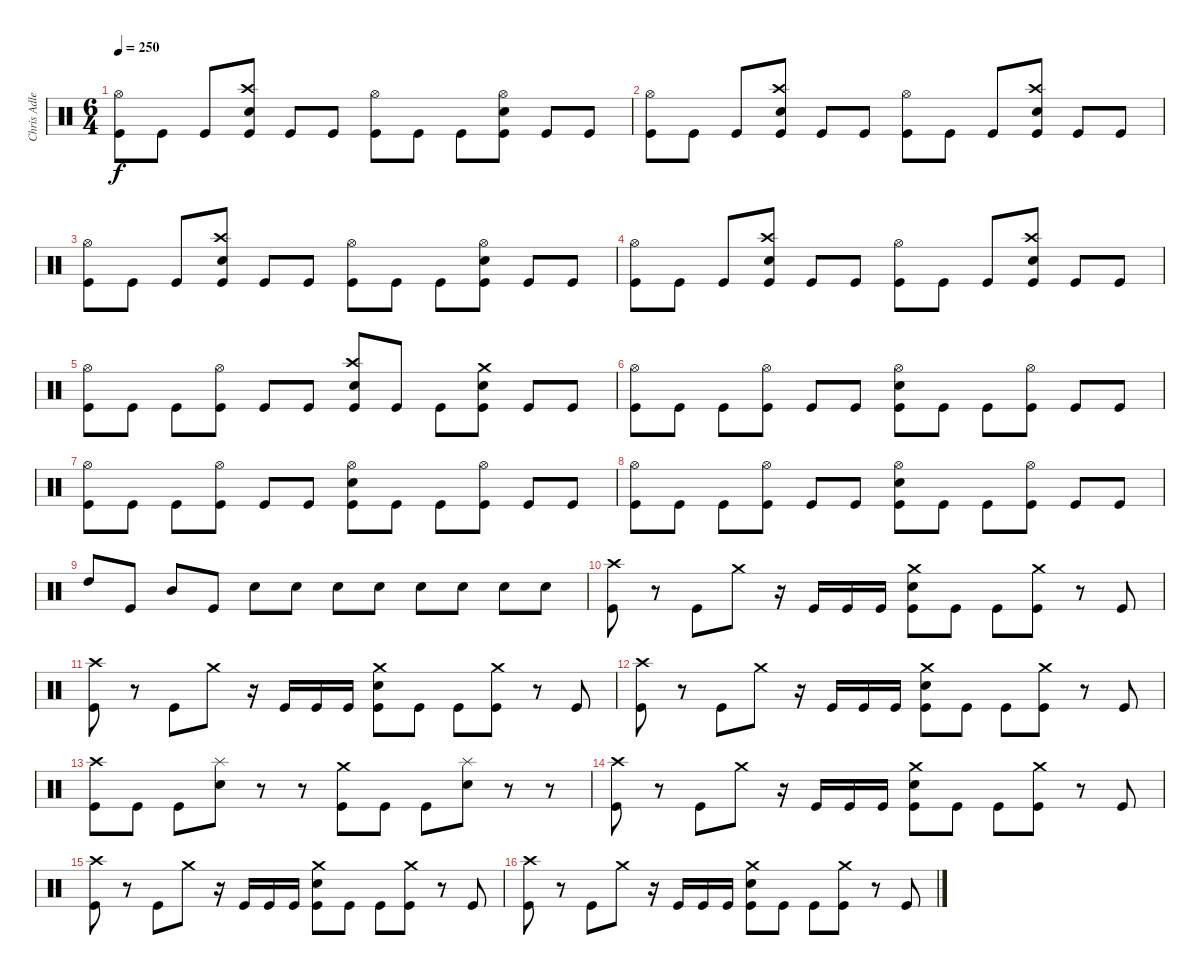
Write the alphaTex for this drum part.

\track ("Chris Adler" "Chris Adle") {instrument percussion}
\staff {score}
\articulation defaults
\ts (6 4)
\tempo 250
\clef neutral
\ks c
("Hi-Hat (open)" "Kick (hit)").8{dy f} "Kick (hit)".8 "Kick (hit)".8 ("Crash high (hit)" "Electric Snare (hit)" "Kick (hit)").8 "Kick (hit)".8 "Kick (hit)".8 ("Hi-Hat (open)" "Kick (hit)").8 "Kick (hit)".8 "Kick (hit)".8 ("Hi-Hat (open)" "Electric Snare (hit)" "Kick (hit)").8 "Kick (hit)".8 "Kick (hit)".8 |
("Hi-Hat (open)" "Kick (hit)").8 "Kick (hit)".8 "Kick (hit)".8 ("Crash high (hit)" "Electric Snare (hit)" "Kick (hit)").8 "Kick (hit)".8 "Kick (hit)".8 ("Hi-Hat (open)" "Kick (hit)").8 "Kick (hit)".8 "Kick (hit)".8 ("Crash high (hit)" "Electric Snare (hit)" "Kick (hit)").8 "Kick (hit)".8 "Kick (hit)".8 |
("Hi-Hat (open)" "Kick (hit)").8 "Kick (hit)".8 "Kick (hit)".8 ("Crash high (hit)" "Electric Snare (hit)" "Kick (hit)").8 "Kick (hit)".8 "Kick (hit)".8 ("Hi-Hat (open)" "Kick (hit)").8 "Kick (hit)".8 "Kick (hit)".8 ("Hi-Hat (open)" "Electric Snare (hit)" "Kick (hit)").8 "Kick (hit)".8 "Kick (hit)".8 |
("Hi-Hat (open)" "Kick (hit)").8 "Kick (hit)".8 "Kick (hit)".8 ("Crash high (hit)" "Electric Snare (hit)" "Kick (hit)").8 "Kick (hit)".8 "Kick (hit)".8 ("Hi-Hat (open)" "Kick (hit)").8 "Kick (hit)".8 "Kick (hit)".8 ("Crash high (hit)" "Electric Snare (hit)" "Kick (hit)").8 "Kick (hit)".8 "Kick (hit)".8 |
("Hi-Hat (open)" "Kick (hit)").8 "Kick (hit)".8 "Kick (hit)".8 ("Hi-Hat (open)" "Kick (hit)").8 "Kick (hit)".8 "Kick (hit)".8 ("Crash high (hit)" "Electric Snare (hit)" "Kick (hit)").8 "Kick (hit)".8 "Kick (hit)".8 ("Crash medium (hit)" "Electric Snare (hit)" "Kick (hit)").8 "Kick (hit)".8 "Kick (hit)".8 |
("Hi-Hat (open)" "Kick (hit)").8 "Kick (hit)".8 "Kick (hit)".8 ("Hi-Hat (open)" "Kick (hit)").8 "Kick (hit)".8 "Kick (hit)".8 ("Hi-Hat (open)" "Electric Snare (hit)" "Kick (hit)").8 "Kick (hit)".8 "Kick (hit)".8 ("Hi-Hat (open)" "Kick (hit)").8 "Kick (hit)".8 "Kick (hit)".8 |
("Hi-Hat (open)" "Kick (hit)").8 "Kick (hit)".8 "Kick (hit)".8 ("Hi-Hat (open)" "Kick (hit)").8 "Kick (hit)".8 "Kick (hit)".8 ("Hi-Hat (open)" "Electric Snare (hit)" "Kick (hit)").8 "Kick (hit)".8 "Kick (hit)".8 ("Hi-Hat (open)" "Kick (hit)").8 "Kick (hit)".8 "Kick (hit)".8 |
("Hi-Hat (open)" "Kick (hit)").8 "Kick (hit)".8 "Kick (hit)".8 ("Hi-Hat (open)" "Kick (hit)").8 "Kick (hit)".8 "Kick (hit)".8 ("Hi-Hat (open)" "Electric Snare (hit)" "Kick (hit)").8 "Kick (hit)".8 "Kick (hit)".8 ("Hi-Hat (open)" "Kick (hit)").8 "Kick (hit)".8 "Kick (hit)".8 |
"High Tom (hit)".8 "Kick (hit)".8 "Mid Tom (hit)".8 "Kick (hit)".8 "Electric Snare (hit)".8 "Electric Snare (hit)".8 "Electric Snare (hit)".8 "Electric Snare (hit)".8 "Electric Snare (hit)".8 "Electric Snare (hit)".8 "Electric Snare (hit)".8 "Electric Snare (hit)".8 |
("Crash high (hit)" "Kick (hit)").8 r.8 "Kick (hit)".8 "Crash medium (hit)".8 r.16 "Kick (hit)".16 "Kick (hit)".16 "Kick (hit)".16 ("Crash medium (hit)" "Electric Snare (hit)" "Kick (hit)").8 "Kick (hit)".8 "Kick (hit)".8 ("Crash medium (hit)" "Kick (hit)").8 r.8 "Kick (hit)".8 |
("Crash high (hit)" "Kick (hit)").8 r.8 "Kick (hit)".8 "Crash medium (hit)".8 r.16 "Kick (hit)".16 "Kick (hit)".16 "Kick (hit)".16 ("Crash medium (hit)" "Electric Snare (hit)" "Kick (hit)").8 "Kick (hit)".8 "Kick (hit)".8 ("Crash medium (hit)" "Kick (hit)").8 r.8 "Kick (hit)".8 |
("Crash high (hit)" "Kick (hit)").8 r.8 "Kick (hit)".8 "Crash medium (hit)".8 r.16 "Kick (hit)".16 "Kick (hit)".16 "Kick (hit)".16 ("Crash medium (hit)" "Electric Snare (hit)" "Kick (hit)").8 "Kick (hit)".8 "Kick (hit)".8 ("Crash medium (hit)" "Kick (hit)").8 r.8 "Kick (hit)".8 |
("Crash high (hit)" "Kick (hit)").8 "Kick (hit)".8 "Kick (hit)".8 ("Splash (hit)" "Electric Snare (hit)").8 r.8 r.8 ("Crash medium (hit)" "Kick (hit)").8 "Kick (hit)".8 "Kick (hit)".8 ("Splash (hit)" "Electric Snare (hit)").8 r.8 r.8 |
("Crash high (hit)" "Kick (hit)").8 r.8 "Kick (hit)".8 "Crash medium (hit)".8 r.16 "Kick (hit)".16 "Kick (hit)".16 "Kick (hit)".16 ("Crash medium (hit)" "Electric Snare (hit)" "Kick (hit)").8 "Kick (hit)".8 "Kick (hit)".8 ("Crash medium (hit)" "Kick (hit)").8 r.8 "Kick (hit)".8 |
("Crash high (hit)" "Kick (hit)").8 r.8 "Kick (hit)".8 "Crash medium (hit)".8 r.16 "Kick (hit)".16 "Kick (hit)".16 "Kick (hit)".16 ("Crash medium (hit)" "Electric Snare (hit)" "Kick (hit)").8 "Kick (hit)".8 "Kick (hit)".8 ("Crash medium (hit)" "Kick (hit)").8 r.8 "Kick (hit)".8 |
("Crash high (hit)" "Kick (hit)").8 r.8 "Kick (hit)".8 "Crash medium (hit)".8 r.16 "Kick (hit)".16 "Kick (hit)".16 "Kick (hit)".16 ("Crash medium (hit)" "Electric Snare (hit)" "Kick (hit)").8 "Kick (hit)".8 "Kick (hit)".8 ("Crash medium (hit)" "Kick (hit)").8 r.8 "Kick (hit)".8
